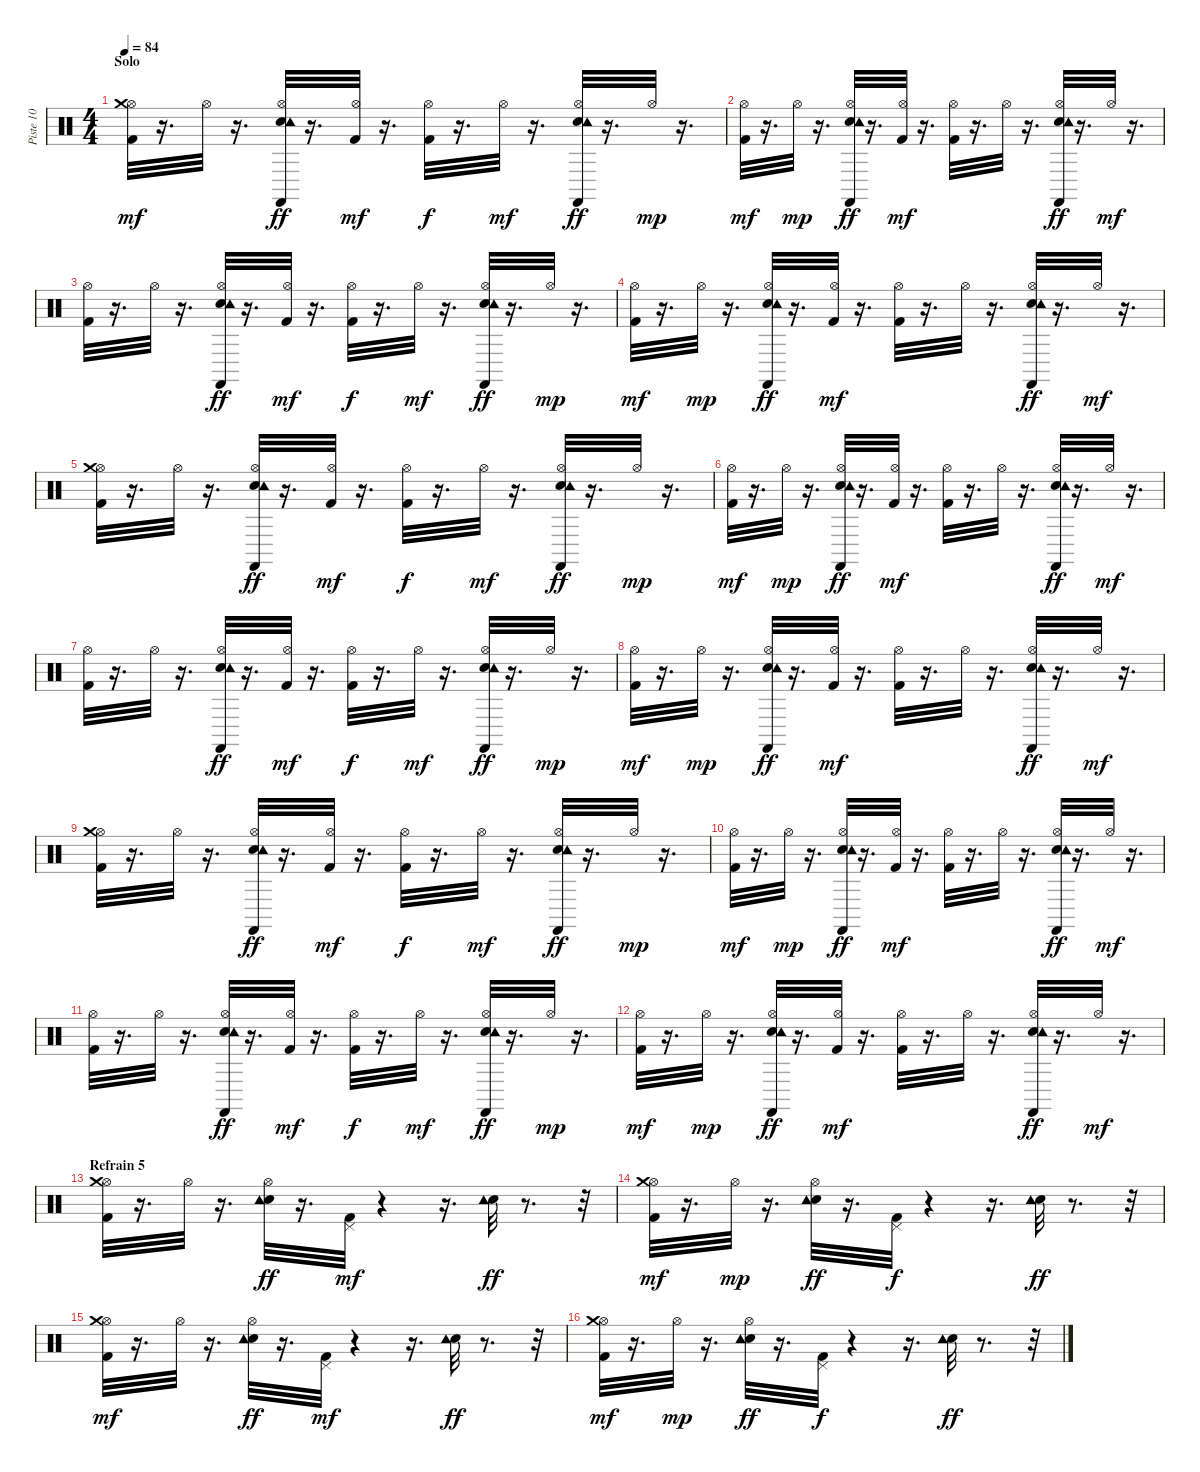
\track ("Piste 10" "Piste 10") {instrument percussion}
\staff {score}
\articulation defaults
\ts (4 4)
\section ("" "Solo")
\tempo 84
\clef neutral
\ks c
("Kick (hit) 2" "Hi-Hat (open)" "Crash medium (hit)").32{dy mf} r.16{d} "Hi-Hat (open)".32 r.16{d} ("Hi-Hat (open)" "Hand Clap (hit)" "Tambourine (hit)" "Castanets (hit)").32{dy ff} r.16{d} ("Hi-Hat (open)" "Kick (hit) 2").32{dy mf} r.16{d} ("Hi-Hat (open)" "Kick (hit) 2").32{dy f} r.16{d} "Hi-Hat (open)".32{dy mf} r.16{d} ("Hi-Hat (open)" "Hand Clap (hit)" "Tambourine (hit)" "Castanets (hit)").32{dy ff} r.16{d} "Hi-Hat (open)".32{dy mp} r.16{d} |
("Kick (hit) 2" "Hi-Hat (open)").32{dy mf} r.16{d} "Hi-Hat (open)".32{dy mp} r.16{d} ("Hi-Hat (open)" "Hand Clap (hit)" "Tambourine (hit)" "Castanets (hit)").32{dy ff} r.16{d} ("Hi-Hat (open)" "Kick (hit) 2").32{dy mf} r.16{d} ("Hi-Hat (open)" "Kick (hit) 2").32 r.16{d} "Hi-Hat (open)".32 r.16{d} ("Hand Clap (hit)" "Hi-Hat (open)" "Tambourine (hit)" "Castanets (hit)").32{dy ff} r.16{d} "Hi-Hat (open)".32{dy mf} r.16{d} |
("Kick (hit) 2" "Hi-Hat (open)").32 r.16{d} "Hi-Hat (open)".32 r.16{d} ("Hi-Hat (open)" "Hand Clap (hit)" "Tambourine (hit)" "Castanets (hit)").32{dy ff} r.16{d} ("Hi-Hat (open)" "Kick (hit) 2").32{dy mf} r.16{d} ("Hi-Hat (open)" "Kick (hit) 2").32{dy f} r.16{d} "Hi-Hat (open)".32{dy mf} r.16{d} ("Hi-Hat (open)" "Hand Clap (hit)" "Tambourine (hit)" "Castanets (hit)").32{dy ff} r.16{d} "Hi-Hat (open)".32{dy mp} r.16{d} |
("Kick (hit) 2" "Hi-Hat (open)").32{dy mf} r.16{d} "Hi-Hat (open)".32{dy mp} r.16{d} ("Hi-Hat (open)" "Hand Clap (hit)" "Tambourine (hit)" "Castanets (hit)").32{dy ff} r.16{d} ("Hi-Hat (open)" "Kick (hit) 2").32{dy mf} r.16{d} ("Hi-Hat (open)" "Kick (hit) 2").32 r.16{d} "Hi-Hat (open)".32 r.16{d} ("Hand Clap (hit)" "Hi-Hat (open)" "Tambourine (hit)" "Castanets (hit)").32{dy ff} r.16{d} "Hi-Hat (open)".32{dy mf} r.16{d} |
("Kick (hit) 2" "Hi-Hat (open)" "Crash medium (hit)").32 r.16{d} "Hi-Hat (open)".32 r.16{d} ("Hi-Hat (open)" "Hand Clap (hit)" "Tambourine (hit)" "Castanets (hit)").32{dy ff} r.16{d} ("Hi-Hat (open)" "Kick (hit) 2").32{dy mf} r.16{d} ("Hi-Hat (open)" "Kick (hit) 2").32{dy f} r.16{d} "Hi-Hat (open)".32{dy mf} r.16{d} ("Hi-Hat (open)" "Hand Clap (hit)" "Tambourine (hit)" "Castanets (hit)").32{dy ff} r.16{d} "Hi-Hat (open)".32{dy mp} r.16{d} |
("Kick (hit) 2" "Hi-Hat (open)").32{dy mf} r.16{d} "Hi-Hat (open)".32{dy mp} r.16{d} ("Hi-Hat (open)" "Hand Clap (hit)" "Tambourine (hit)" "Castanets (hit)").32{dy ff} r.16{d} ("Hi-Hat (open)" "Kick (hit) 2").32{dy mf} r.16{d} ("Hi-Hat (open)" "Kick (hit) 2").32 r.16{d} "Hi-Hat (open)".32 r.16{d} ("Hand Clap (hit)" "Hi-Hat (open)" "Tambourine (hit)" "Castanets (hit)").32{dy ff} r.16{d} "Hi-Hat (open)".32{dy mf} r.16{d} |
("Kick (hit) 2" "Hi-Hat (open)").32 r.16{d} "Hi-Hat (open)".32 r.16{d} ("Hi-Hat (open)" "Hand Clap (hit)" "Tambourine (hit)" "Castanets (hit)").32{dy ff} r.16{d} ("Hi-Hat (open)" "Kick (hit) 2").32{dy mf} r.16{d} ("Hi-Hat (open)" "Kick (hit) 2").32{dy f} r.16{d} "Hi-Hat (open)".32{dy mf} r.16{d} ("Hi-Hat (open)" "Hand Clap (hit)" "Tambourine (hit)" "Castanets (hit)").32{dy ff} r.16{d} "Hi-Hat (open)".32{dy mp} r.16{d} |
("Kick (hit) 2" "Hi-Hat (open)").32{dy mf} r.16{d} "Hi-Hat (open)".32{dy mp} r.16{d} ("Hi-Hat (open)" "Hand Clap (hit)" "Tambourine (hit)" "Castanets (hit)").32{dy ff} r.16{d} ("Hi-Hat (open)" "Kick (hit) 2").32{dy mf} r.16{d} ("Hi-Hat (open)" "Kick (hit) 2").32 r.16{d} "Hi-Hat (open)".32 r.16{d} ("Hand Clap (hit)" "Hi-Hat (open)" "Tambourine (hit)" "Castanets (hit)").32{dy ff} r.16{d} "Hi-Hat (open)".32{dy mf} r.16{d} |
("Kick (hit) 2" "Hi-Hat (open)" "Crash medium (hit)").32 r.16{d} "Hi-Hat (open)".32 r.16{d} ("Hi-Hat (open)" "Hand Clap (hit)" "Tambourine (hit)" "Castanets (hit)").32{dy ff} r.16{d} ("Hi-Hat (open)" "Kick (hit) 2").32{dy mf} r.16{d} ("Hi-Hat (open)" "Kick (hit) 2").32{dy f} r.16{d} "Hi-Hat (open)".32{dy mf} r.16{d} ("Hi-Hat (open)" "Hand Clap (hit)" "Tambourine (hit)" "Castanets (hit)").32{dy ff} r.16{d} "Hi-Hat (open)".32{dy mp} r.16{d} |
("Kick (hit) 2" "Hi-Hat (open)").32{dy mf} r.16{d} "Hi-Hat (open)".32{dy mp} r.16{d} ("Hi-Hat (open)" "Hand Clap (hit)" "Tambourine (hit)" "Castanets (hit)").32{dy ff} r.16{d} ("Hi-Hat (open)" "Kick (hit) 2").32{dy mf} r.16{d} ("Hi-Hat (open)" "Kick (hit) 2").32 r.16{d} "Hi-Hat (open)".32 r.16{d} ("Hand Clap (hit)" "Hi-Hat (open)" "Tambourine (hit)" "Castanets (hit)").32{dy ff} r.16{d} "Hi-Hat (open)".32{dy mf} r.16{d} |
("Kick (hit) 2" "Hi-Hat (open)").32 r.16{d} "Hi-Hat (open)".32 r.16{d} ("Hi-Hat (open)" "Hand Clap (hit)" "Tambourine (hit)" "Castanets (hit)").32{dy ff} r.16{d} ("Hi-Hat (open)" "Kick (hit) 2").32{dy mf} r.16{d} ("Hi-Hat (open)" "Kick (hit) 2").32{dy f} r.16{d} "Hi-Hat (open)".32{dy mf} r.16{d} ("Hi-Hat (open)" "Hand Clap (hit)" "Tambourine (hit)" "Castanets (hit)").32{dy ff} r.16{d} "Hi-Hat (open)".32{dy mp} r.16{d} |
("Kick (hit) 2" "Hi-Hat (open)").32{dy mf} r.16{d} "Hi-Hat (open)".32{dy mp} r.16{d} ("Hi-Hat (open)" "Hand Clap (hit)" "Tambourine (hit)" "Castanets (hit)").32{dy ff} r.16{d} ("Hi-Hat (open)" "Kick (hit) 2").32{dy mf} r.16{d} ("Hi-Hat (open)" "Kick (hit) 2").32 r.16{d} "Hi-Hat (open)".32 r.16{d} ("Hand Clap (hit)" "Hi-Hat (open)" "Tambourine (hit)" "Castanets (hit)").32{dy ff} r.16{d} "Hi-Hat (open)".32{dy mf} r.16{d} |
\section ("" "Refrain 5")
("Kick (hit) 2" "Hi-Hat (open)" "Crash medium (hit)").32 r.16{d} "Hi-Hat (open)".32 r.16{d} ("Hi-Hat (open)" "Hand Clap (hit)" "Tambourine (hit)").32{dy ff} r.16{d} ("Kick (hit) 2" "Pedal Hi-Hat (hit)").32{dy mf} r.4 r.16{d} ("Hand Clap (hit)" "Tambourine (hit)").32{dy ff} r.8{d} r.32 |
("Kick (hit) 2" "Hi-Hat (open)" "Crash medium (hit)").32{dy mf} r.16{d} "Hi-Hat (open)".32{dy mp} r.16{d} ("Hi-Hat (open)" "Hand Clap (hit)" "Tambourine (hit)").32{dy ff} r.16{d} ("Kick (hit) 2" "Pedal Hi-Hat (hit)").32{dy f} r.4 r.16{d} ("Hand Clap (hit)" "Tambourine (hit)").32{dy ff} r.8{d} r.32 |
("Kick (hit) 2" "Hi-Hat (open)" "Crash medium (hit)").32{dy mf} r.16{d} "Hi-Hat (open)".32 r.16{d} ("Hi-Hat (open)" "Hand Clap (hit)" "Tambourine (hit)").32{dy ff} r.16{d} ("Kick (hit) 2" "Pedal Hi-Hat (hit)").32{dy mf} r.4 r.16{d} ("Hand Clap (hit)" "Tambourine (hit)").32{dy ff} r.8{d} r.32 |
("Kick (hit) 2" "Hi-Hat (open)" "Crash medium (hit)").32{dy mf} r.16{d} "Hi-Hat (open)".32{dy mp} r.16{d} ("Hi-Hat (open)" "Hand Clap (hit)" "Tambourine (hit)").32{dy ff} r.16{d} ("Kick (hit) 2" "Pedal Hi-Hat (hit)").32{dy f} r.4 r.16{d} ("Hand Clap (hit)" "Tambourine (hit)").32{dy ff} r.8{d} r.32
